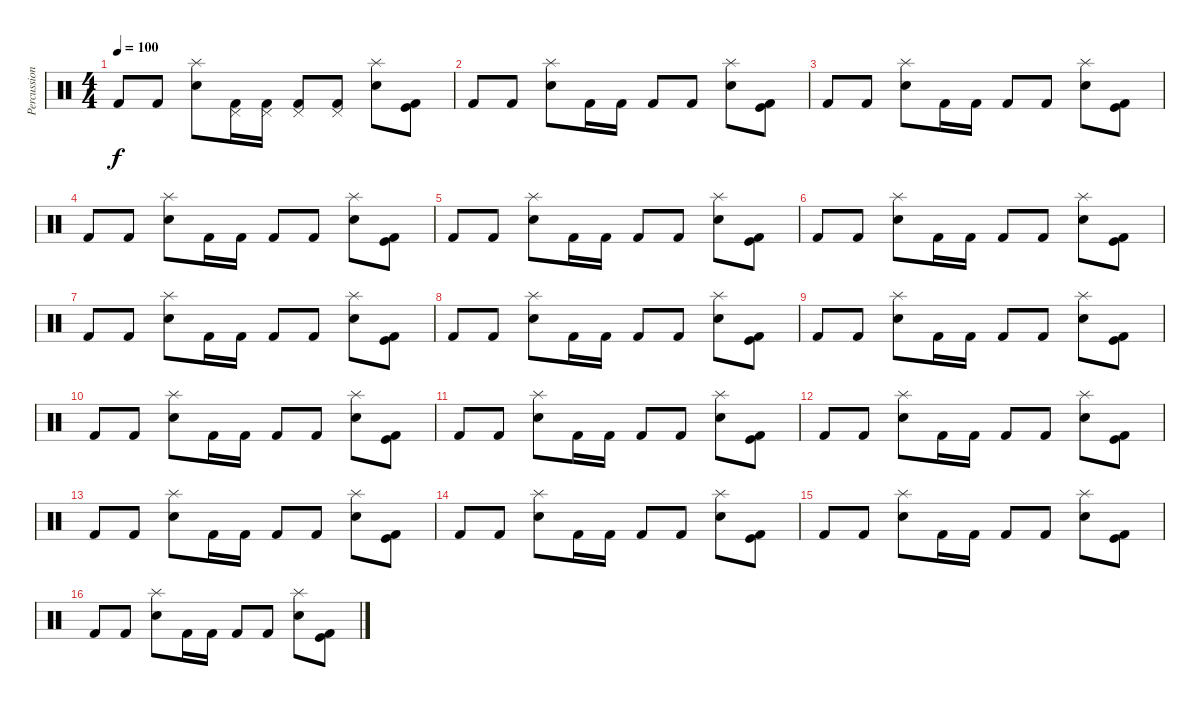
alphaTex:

\track ("Percussion" "Percussion") {instrument percussion}
\staff {score}
\articulation defaults
\ts (4 4)
\tempo 100
\clef neutral
\ks c "Kick (hit) 2".8{dy f} "Kick (hit) 2".8
("Splash (hit)" "Snare (hit) 2").8 ("Pedal Hi-Hat (hit)" "Kick (hit) 2").16 ("Pedal Hi-Hat (hit)" "Kick (hit) 2").16 ("Pedal Hi-Hat (hit)" "Kick (hit) 2").8 ("Pedal Hi-Hat (hit)" "Kick (hit) 2").8 ("Splash (hit)" "Snare (hit) 2").8 ("Kick (hit) 2" "Kick (hit)").8 |
"Kick (hit) 2".8 "Kick (hit) 2".8 ("Splash (hit)" "Snare (hit) 2").8 "Kick (hit) 2".16 "Kick (hit) 2".16 "Kick (hit) 2".8 "Kick (hit) 2".8 ("Splash (hit)" "Snare (hit) 2").8 ("Kick (hit) 2" "Kick (hit)").8 |
"Kick (hit) 2".8 "Kick (hit) 2".8 ("Splash (hit)" "Snare (hit) 2").8 "Kick (hit) 2".16 "Kick (hit) 2".16 "Kick (hit) 2".8 "Kick (hit) 2".8 ("Splash (hit)" "Snare (hit) 2").8 ("Kick (hit) 2" "Kick (hit)").8 |
"Kick (hit) 2".8 "Kick (hit) 2".8 ("Splash (hit)" "Snare (hit) 2").8 "Kick (hit) 2".16 "Kick (hit) 2".16 "Kick (hit) 2".8 "Kick (hit) 2".8 ("Splash (hit)" "Snare (hit) 2").8 ("Kick (hit) 2" "Kick (hit)").8 |
"Kick (hit) 2".8 "Kick (hit) 2".8 ("Splash (hit)" "Snare (hit) 2").8 "Kick (hit) 2".16 "Kick (hit) 2".16 "Kick (hit) 2".8 "Kick (hit) 2".8 ("Splash (hit)" "Snare (hit) 2").8 ("Kick (hit) 2" "Kick (hit)").8 |
"Kick (hit) 2".8 "Kick (hit) 2".8 ("Splash (hit)" "Snare (hit) 2").8 "Kick (hit) 2".16 "Kick (hit) 2".16 "Kick (hit) 2".8 "Kick (hit) 2".8 ("Splash (hit)" "Snare (hit) 2").8 ("Kick (hit) 2" "Kick (hit)").8 |
"Kick (hit) 2".8 "Kick (hit) 2".8 ("Splash (hit)" "Snare (hit) 2").8 "Kick (hit) 2".16 "Kick (hit) 2".16 "Kick (hit) 2".8 "Kick (hit) 2".8 ("Splash (hit)" "Snare (hit) 2").8 ("Kick (hit) 2" "Kick (hit)").8 |
"Kick (hit) 2".8 "Kick (hit) 2".8 ("Splash (hit)" "Snare (hit) 2").8 "Kick (hit) 2".16 "Kick (hit) 2".16 "Kick (hit) 2".8 "Kick (hit) 2".8 ("Splash (hit)" "Snare (hit) 2").8 ("Kick (hit) 2" "Kick (hit)").8 |
"Kick (hit) 2".8 "Kick (hit) 2".8 ("Splash (hit)" "Snare (hit) 2").8 "Kick (hit) 2".16 "Kick (hit) 2".16 "Kick (hit) 2".8 "Kick (hit) 2".8 ("Splash (hit)" "Snare (hit) 2").8 ("Kick (hit) 2" "Kick (hit)").8 |
"Kick (hit) 2".8 "Kick (hit) 2".8 ("Splash (hit)" "Snare (hit) 2").8 "Kick (hit) 2".16 "Kick (hit) 2".16 "Kick (hit) 2".8 "Kick (hit) 2".8 ("Splash (hit)" "Snare (hit) 2").8 ("Kick (hit) 2" "Kick (hit)").8 |
"Kick (hit) 2".8 "Kick (hit) 2".8 ("Splash (hit)" "Snare (hit) 2").8 "Kick (hit) 2".16 "Kick (hit) 2".16 "Kick (hit) 2".8 "Kick (hit) 2".8 ("Splash (hit)" "Snare (hit) 2").8 ("Kick (hit) 2" "Kick (hit)").8 |
"Kick (hit) 2".8 "Kick (hit) 2".8 ("Splash (hit)" "Snare (hit) 2").8 "Kick (hit) 2".16 "Kick (hit) 2".16 "Kick (hit) 2".8 "Kick (hit) 2".8 ("Splash (hit)" "Snare (hit) 2").8 ("Kick (hit) 2" "Kick (hit)").8 |
"Kick (hit) 2".8 "Kick (hit) 2".8 ("Splash (hit)" "Snare (hit) 2").8 "Kick (hit) 2".16 "Kick (hit) 2".16 "Kick (hit) 2".8 "Kick (hit) 2".8 ("Splash (hit)" "Snare (hit) 2").8 ("Kick (hit) 2" "Kick (hit)").8 |
"Kick (hit) 2".8 "Kick (hit) 2".8 ("Splash (hit)" "Snare (hit) 2").8 "Kick (hit) 2".16 "Kick (hit) 2".16 "Kick (hit) 2".8 "Kick (hit) 2".8 ("Splash (hit)" "Snare (hit) 2").8 ("Kick (hit) 2" "Kick (hit)").8 |
"Kick (hit) 2".8 "Kick (hit) 2".8 ("Splash (hit)" "Snare (hit) 2").8 "Kick (hit) 2".16 "Kick (hit) 2".16 "Kick (hit) 2".8 "Kick (hit) 2".8 ("Splash (hit)" "Snare (hit) 2").8 ("Kick (hit) 2" "Kick (hit)").8 |
"Kick (hit) 2".8 "Kick (hit) 2".8 ("Splash (hit)" "Snare (hit) 2").8 "Kick (hit) 2".16 "Kick (hit) 2".16 "Kick (hit) 2".8 "Kick (hit) 2".8 ("Splash (hit)" "Snare (hit) 2").8 ("Kick (hit) 2" "Kick (hit)").8
